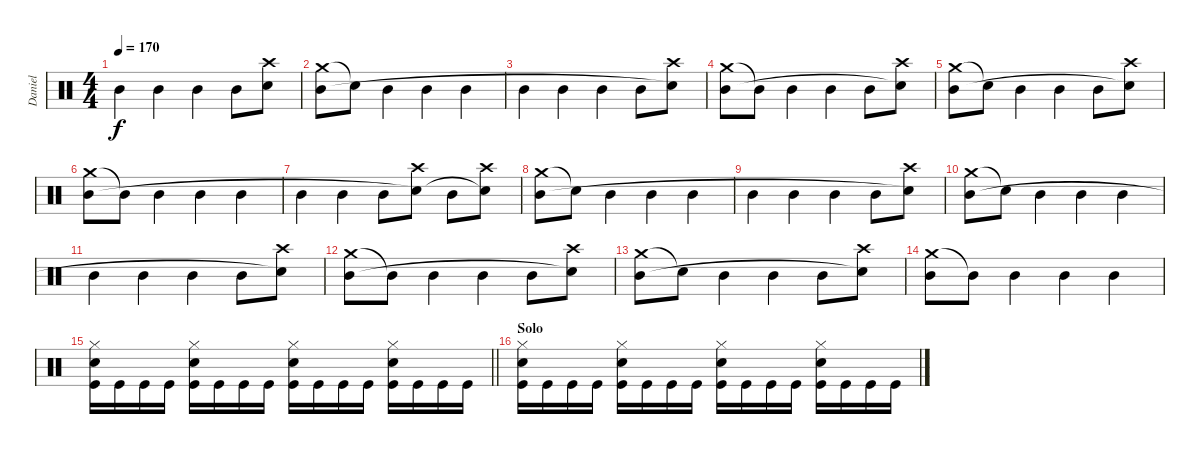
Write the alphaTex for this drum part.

\track ("Daniel" "Daniel") {instrument percussion}
\staff {score}
\articulation defaults
\ts (4 4)
\tempo 170
\clef neutral
\ks c "Mid Tom (hit)".4{dy f} "Mid Tom (hit)".4 "Mid Tom (hit)".4 "Mid Tom (hit)".8
("Crash high (hit)" "Snare (hit)"{t}).8 |
("Crash medium (hit)" "Mid Tom (hit)").8 "Snare (hit)"{t}.8 "Mid Tom (hit)".4 "Mid Tom (hit)".4 "Mid Tom (hit)".4 |
"Mid Tom (hit)".4 "Mid Tom (hit)".4 "Mid Tom (hit)".4 "Mid Tom (hit)".8 ("Crash high (hit)" "Snare (hit)"{t}).8 |
("Crash medium (hit)" "Mid Tom (hit)").8 "Mid Tom (hit)"{t}.8 "Mid Tom (hit)".4 "Mid Tom (hit)".4 "Mid Tom (hit)".8 ("Crash high (hit)" "Snare (hit)"{t}).8 |
("Crash medium (hit)" "Mid Tom (hit)").8 "Snare (hit)"{t}.8 "Mid Tom (hit)".4 "Mid Tom (hit)".4 "Mid Tom (hit)".8 ("Crash high (hit)" "Snare (hit)"{t}).8 |
("Crash medium (hit)" "Mid Tom (hit)").8 "Mid Tom (hit)"{t}.8 "Mid Tom (hit)".4 "Mid Tom (hit)".4 "Mid Tom (hit)".4 |
"Mid Tom (hit)".4 "Mid Tom (hit)".4 "Mid Tom (hit)".8 ("Crash high (hit)" "Snare (hit)"{t}).8 "Mid Tom (hit)".8 ("Crash high (hit)" "Snare (hit)"{t}).8 |
("Crash medium (hit)" "Mid Tom (hit)").8 "Snare (hit)"{t}.8 "Mid Tom (hit)".4 "Mid Tom (hit)".4 "Mid Tom (hit)".4 |
"Mid Tom (hit)".4 "Mid Tom (hit)".4 "Mid Tom (hit)".4 "Mid Tom (hit)".8 ("Crash high (hit)" "Snare (hit)"{t}).8 |
("Crash medium (hit)" "Mid Tom (hit)").8 "Snare (hit)"{t}.8 "Mid Tom (hit)".4 "Mid Tom (hit)".4 "Mid Tom (hit)".4 |
"Mid Tom (hit)".4 "Mid Tom (hit)".4 "Mid Tom (hit)".4 "Mid Tom (hit)".8 ("Crash high (hit)" "Snare (hit)"{t}).8 |
("Crash medium (hit)" "Mid Tom (hit)").8 "Mid Tom (hit)"{t}.8 "Mid Tom (hit)".4 "Mid Tom (hit)".4 "Mid Tom (hit)".8 ("Crash high (hit)" "Snare (hit)"{t}).8 |
("Crash medium (hit)" "Mid Tom (hit)").8 "Snare (hit)"{t}.8 "Mid Tom (hit)".4 "Mid Tom (hit)".4 "Mid Tom (hit)".8 ("Crash high (hit)" "Snare (hit)"{t}).8 |
("Crash medium (hit)" "Mid Tom (hit)").8 "Mid Tom (hit)"{t}.8 "Mid Tom (hit)".4 "Mid Tom (hit)".4 "Mid Tom (hit)".4 |
\barLineRight lightlight
("Kick (hit)" "Snare (hit) 2" "Hi-Hat (closed)").16 "Kick (hit)".16 "Kick (hit)".16 "Kick (hit)".16 ("Kick (hit)" "Snare (hit) 2" "Hi-Hat (closed)").16 "Kick (hit)".16 "Kick (hit)".16 "Kick (hit)".16 ("Kick (hit)" "Snare (hit) 2" "Hi-Hat (closed)").16 "Kick (hit)".16 "Kick (hit)".16 "Kick (hit)".16 ("Kick (hit)" "Snare (hit) 2" "Hi-Hat (closed)").16 "Kick (hit)".16 "Kick (hit)".16 "Kick (hit)".16 |
\section ("" "Solo")
("Kick (hit)" "Snare (hit) 2" "Hi-Hat (closed)").16 "Kick (hit)".16 "Kick (hit)".16 "Kick (hit)".16 ("Kick (hit)" "Snare (hit) 2" "Hi-Hat (closed)").16 "Kick (hit)".16 "Kick (hit)".16 "Kick (hit)".16 ("Kick (hit)" "Snare (hit) 2" "Hi-Hat (closed)").16 "Kick (hit)".16 "Kick (hit)".16 "Kick (hit)".16 ("Kick (hit)" "Snare (hit) 2" "Hi-Hat (closed)").16 "Kick (hit)".16 "Kick (hit)".16 "Kick (hit)".16
